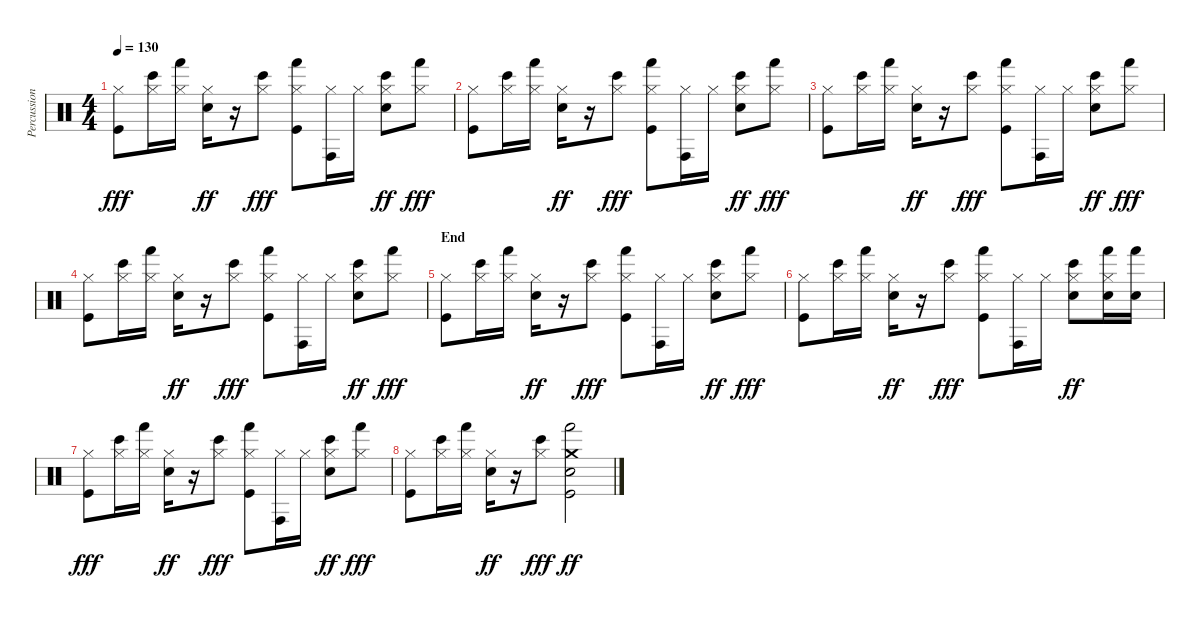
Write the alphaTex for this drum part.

\track ("Percussion" "Percussion") {instrument percussion}
\staff {score}
\articulation defaults
\ts (4 4)
\tempo 130
\clef neutral
\ks c
("Hi-Hat (closed)" "Kick (hit)").8{dy fff} ("Hi-Hat (closed)" "Bongo High (hit)").16 ("Hi-Hat (closed)" "Hand (hit)").16 ("Hi-Hat (closed)" "Electric Snare (hit)").16{dy ff} r.16 ("Hi-Hat (closed)" "Bongo High (hit)").8{dy fff} ("Hi-Hat (closed)" "Hand (hit)" "Kick (hit)").8 ("Hi-Hat (closed)" "Conga high (hit)").16 "Hi-Hat (closed)".16 ("Hi-Hat (closed)" "Bongo High (hit)" "Electric Snare (hit)").8{dy ff} ("Hi-Hat (closed)" "Hand (hit)").8{dy fff} |
("Hi-Hat (closed)" "Kick (hit)").8 ("Hi-Hat (closed)" "Bongo High (hit)").16 ("Hi-Hat (closed)" "Hand (hit)").16 ("Hi-Hat (closed)" "Electric Snare (hit)").16{dy ff} r.16 ("Hi-Hat (closed)" "Bongo High (hit)").8{dy fff} ("Hi-Hat (closed)" "Hand (hit)" "Kick (hit)").8 ("Hi-Hat (closed)" "Conga high (hit)").16 "Hi-Hat (closed)".16 ("Hi-Hat (closed)" "Bongo High (hit)" "Electric Snare (hit)").8{dy ff} ("Hi-Hat (closed)" "Hand (hit)").8{dy fff} |
("Hi-Hat (closed)" "Kick (hit)").8 ("Hi-Hat (closed)" "Bongo High (hit)").16 ("Hi-Hat (closed)" "Hand (hit)").16 ("Hi-Hat (closed)" "Electric Snare (hit)").16{dy ff} r.16 ("Hi-Hat (closed)" "Bongo High (hit)").8{dy fff} ("Hi-Hat (closed)" "Hand (hit)" "Kick (hit)").8 ("Hi-Hat (closed)" "Conga high (hit)").16 "Hi-Hat (closed)".16 ("Hi-Hat (closed)" "Bongo High (hit)" "Electric Snare (hit)").8{dy ff} ("Hi-Hat (closed)" "Hand (hit)").8{dy fff} |
("Hi-Hat (closed)" "Kick (hit)").8 ("Hi-Hat (closed)" "Bongo High (hit)").16 ("Hi-Hat (closed)" "Hand (hit)").16 ("Hi-Hat (closed)" "Electric Snare (hit)").16{dy ff} r.16 ("Hi-Hat (closed)" "Bongo High (hit)").8{dy fff} ("Hi-Hat (closed)" "Hand (hit)" "Kick (hit)").8 ("Hi-Hat (closed)" "Conga high (hit)").16 "Hi-Hat (closed)".16 ("Hi-Hat (closed)" "Bongo High (hit)" "Electric Snare (hit)").8{dy ff} ("Hi-Hat (closed)" "Hand (hit)").8{dy fff} |
\section ("" "End")
("Hi-Hat (closed)" "Kick (hit)").8 ("Hi-Hat (closed)" "Bongo High (hit)").16 ("Hi-Hat (closed)" "Hand (hit)").16 ("Hi-Hat (closed)" "Electric Snare (hit)").16{dy ff} r.16 ("Hi-Hat (closed)" "Bongo High (hit)").8{dy fff} ("Hi-Hat (closed)" "Hand (hit)" "Kick (hit)").8 ("Hi-Hat (closed)" "Conga high (hit)").16 "Hi-Hat (closed)".16 ("Hi-Hat (closed)" "Bongo High (hit)" "Electric Snare (hit)").8{dy ff} ("Hi-Hat (closed)" "Hand (hit)").8{dy fff} |
("Hi-Hat (closed)" "Kick (hit)").8 ("Hi-Hat (closed)" "Bongo High (hit)").16 ("Hi-Hat (closed)" "Hand (hit)").16 ("Hi-Hat (closed)" "Electric Snare (hit)").16{dy ff} r.16 ("Hi-Hat (closed)" "Bongo High (hit)").8{dy fff} ("Hi-Hat (closed)" "Hand (hit)" "Kick (hit)").8 ("Hi-Hat (closed)" "Conga high (hit)").16 "Hi-Hat (closed)".16 ("Hi-Hat (closed)" "Bongo High (hit)" "Electric Snare (hit)").8{dy ff} ("Hi-Hat (closed)" "Hand (hit)" "Electric Snare (hit)").16 ("Hand (hit)" "Electric Snare (hit)").16 |
("Hi-Hat (closed)" "Kick (hit)").8{dy fff} ("Hi-Hat (closed)" "Bongo High (hit)").16 ("Hi-Hat (closed)" "Hand (hit)").16 ("Hi-Hat (closed)" "Electric Snare (hit)").16{dy ff} r.16 ("Hi-Hat (closed)" "Bongo High (hit)").8{dy fff} ("Hi-Hat (closed)" "Hand (hit)" "Kick (hit)").8 ("Hi-Hat (closed)" "Conga high (hit)").16 "Hi-Hat (closed)".16 ("Hi-Hat (closed)" "Bongo High (hit)" "Electric Snare (hit)").8{dy ff} ("Hi-Hat (closed)" "Hand (hit)").8{dy fff} |
("Hi-Hat (closed)" "Kick (hit)").8 ("Hi-Hat (closed)" "Bongo High (hit)").16 ("Hi-Hat (closed)" "Hand (hit)").16 ("Hi-Hat (closed)" "Electric Snare (hit)").16{dy ff} r.16 ("Hi-Hat (closed)" "Bongo High (hit)").8{dy fff} ("Crash medium (hit)" "Hand (hit)" "Electric Snare (hit)" "Kick (hit)").2{dy ff}
